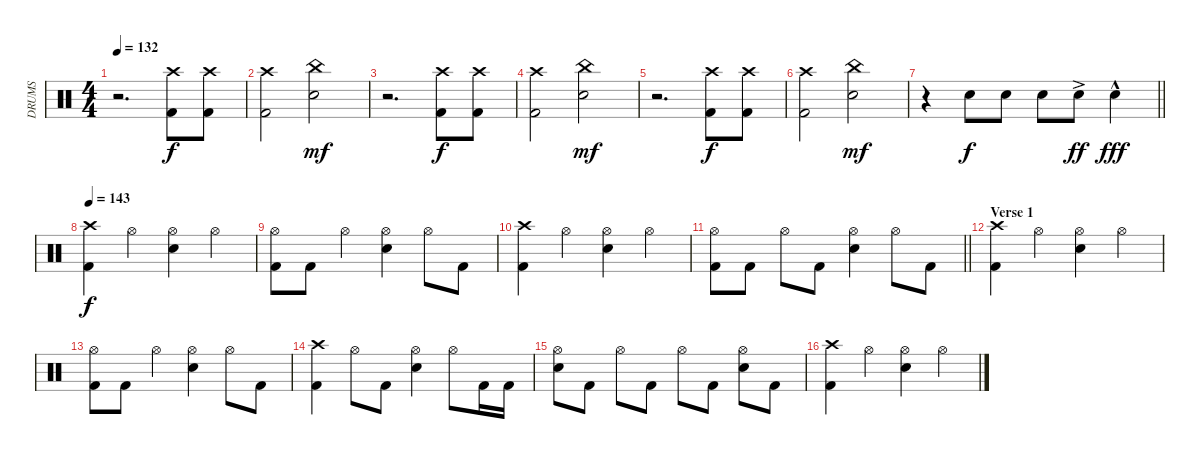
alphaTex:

\track ("DRUMS" "DRUMS") {instrument percussion}
\staff {score}
\articulation defaults
\ts (4 4)
\tempo 132
\clef neutral
\ks c
r.2{d dy mf} ("Crash high (hit)" "Kick (hit) 2").8{dy f} ("Crash high (hit)" "Kick (hit) 2").8 |
("Crash high (hit)" "Kick (hit) 2").2 ("China (hit)" "Snare (hit) 2").2{dy mf} |
r.2{d} ("Crash high (hit)" "Kick (hit) 2").8{dy f} ("Crash high (hit)" "Kick (hit) 2").8 |
("Crash high (hit)" "Kick (hit) 2").2 ("China (hit)" "Snare (hit) 2").2{dy mf} |
r.2{d} ("Crash high (hit)" "Kick (hit) 2").8{dy f} ("Crash high (hit)" "Kick (hit) 2").8 |
("Crash high (hit)" "Kick (hit) 2").2 ("China (hit)" "Snare (hit) 2").2{dy mf} |
\barLineRight lightlight
r.4 "Snare (hit) 2".8{dy f} "Snare (hit) 2".8 "Snare (hit) 2".8 "Snare (hit) 2"{ac}.8{dy ff} "Snare (hit) 2"{hac}.4{dy fff} |
\tempo 143
("Crash high (hit)" "Kick (hit) 2").4{dy f} "Hi-Hat (open)".4 ("Hi-Hat (open)" "Snare (hit) 2").4 "Hi-Hat (open)".4 |
("Hi-Hat (open)" "Kick (hit) 2").8 "Kick (hit) 2".8 "Hi-Hat (open)".4 ("Hi-Hat (open)" "Snare (hit) 2").4 "Hi-Hat (open)".8 "Kick (hit) 2".8 |
("Crash high (hit)" "Kick (hit) 2").4 "Hi-Hat (open)".4 ("Hi-Hat (open)" "Snare (hit) 2").4 "Hi-Hat (open)".4 |
\barLineRight lightlight
("Hi-Hat (open)" "Kick (hit) 2").8 "Kick (hit) 2".8 "Hi-Hat (open)".8 "Kick (hit) 2".8 ("Hi-Hat (open)" "Snare (hit) 2").4 "Hi-Hat (open)".8 "Kick (hit) 2".8 |
\section ("" "Verse 1")
("Crash high (hit)" "Kick (hit) 2").4 "Hi-Hat (open)".4 ("Hi-Hat (open)" "Snare (hit) 2").4 "Hi-Hat (open)".4 |
("Hi-Hat (open)" "Kick (hit) 2").8 "Kick (hit) 2".8 "Hi-Hat (open)".4 ("Hi-Hat (open)" "Snare (hit) 2").4 "Hi-Hat (open)".8 "Kick (hit) 2".8 |
("Crash high (hit)" "Kick (hit) 2").4 "Hi-Hat (open)".8 "Kick (hit) 2".8 ("Hi-Hat (open)" "Snare (hit) 2").4 "Hi-Hat (open)".8 "Kick (hit) 2".16 "Kick (hit) 2".16 |
("Hi-Hat (open)" "Snare (hit) 2").8 "Kick (hit) 2".8 "Hi-Hat (open)".8 "Kick (hit) 2".8 "Hi-Hat (open)".8 "Kick (hit) 2".8 ("Hi-Hat (open)" "Snare (hit) 2").8 "Kick (hit) 2".8 |
("Crash high (hit)" "Kick (hit) 2").4 "Hi-Hat (open)".4 ("Hi-Hat (open)" "Snare (hit) 2").4 "Hi-Hat (open)".4
